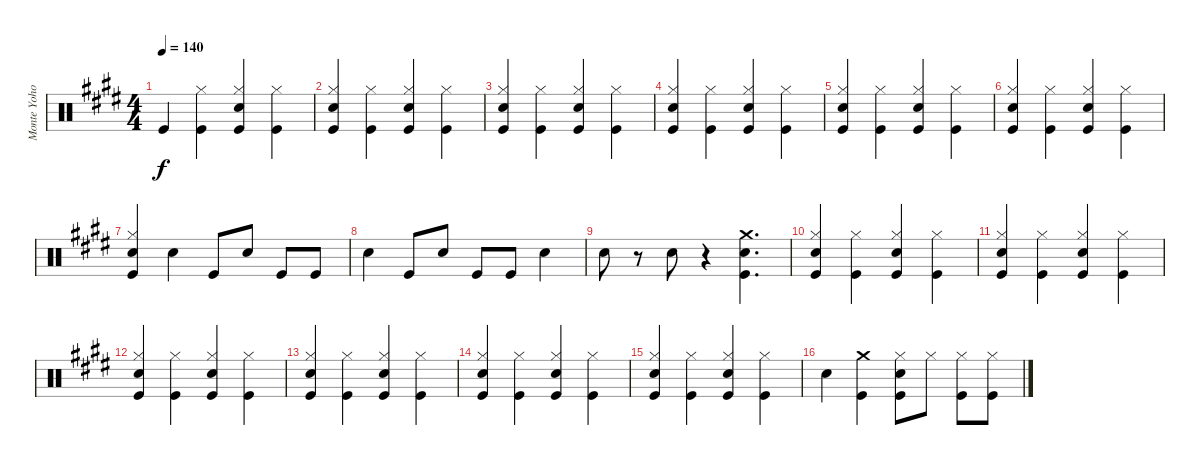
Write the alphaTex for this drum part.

\track ("Monte Yoho Drums" "Monte Yoho") {instrument percussion}
\staff {score}
\articulation defaults
\ts (4 4)
\tempo 140
\clef neutral
\ks e "Kick (hit)".4{dy f}
("Hi-Hat (closed)" "Kick (hit)").4 ("Hi-Hat (closed)" "Snare (hit) 2" "Kick (hit)").4 ("Hi-Hat (closed)" "Kick (hit)").4 |
("Hi-Hat (closed)" "Snare (hit) 2" "Kick (hit)").4 ("Hi-Hat (closed)" "Kick (hit)").4 ("Hi-Hat (closed)" "Snare (hit) 2" "Kick (hit)").4 ("Hi-Hat (closed)" "Kick (hit)").4 |
("Hi-Hat (closed)" "Snare (hit) 2" "Kick (hit)").4 ("Hi-Hat (closed)" "Kick (hit)").4 ("Hi-Hat (closed)" "Snare (hit) 2" "Kick (hit)").4 ("Hi-Hat (closed)" "Kick (hit)").4 |
("Hi-Hat (closed)" "Snare (hit) 2" "Kick (hit)").4 ("Hi-Hat (closed)" "Kick (hit)").4 ("Hi-Hat (closed)" "Snare (hit) 2" "Kick (hit)").4 ("Hi-Hat (closed)" "Kick (hit)").4 |
("Hi-Hat (closed)" "Snare (hit) 2" "Kick (hit)").4 ("Hi-Hat (closed)" "Kick (hit)").4 ("Hi-Hat (closed)" "Snare (hit) 2" "Kick (hit)").4 ("Hi-Hat (closed)" "Kick (hit)").4 |
("Hi-Hat (closed)" "Snare (hit) 2" "Kick (hit)").4 ("Hi-Hat (closed)" "Kick (hit)").4 ("Hi-Hat (closed)" "Snare (hit) 2" "Kick (hit)").4 ("Hi-Hat (closed)" "Kick (hit)").4 |
("Hi-Hat (closed)" "Snare (hit) 2" "Kick (hit)").4 "Snare (hit) 2".4 "Kick (hit)".8 "Snare (hit) 2".8 "Kick (hit)".8 "Kick (hit)".8 |
"Snare (hit) 2".4 "Kick (hit)".8 "Snare (hit) 2".8 "Kick (hit)".8 "Kick (hit)".8 "Snare (hit) 2".4 |
"Snare (hit) 2".8 r.8 "Snare (hit) 2".8 r.4 ("Crash medium (hit)" "Snare (hit) 2" "Kick (hit)").4{d} |
("Hi-Hat (closed)" "Snare (hit) 2" "Kick (hit)").4 ("Hi-Hat (closed)" "Kick (hit)").4 ("Hi-Hat (closed)" "Snare (hit) 2" "Kick (hit)").4 ("Hi-Hat (closed)" "Kick (hit)").4 |
("Hi-Hat (closed)" "Snare (hit) 2" "Kick (hit)").4 ("Hi-Hat (closed)" "Kick (hit)").4 ("Hi-Hat (closed)" "Snare (hit) 2" "Kick (hit)").4 ("Hi-Hat (closed)" "Kick (hit)").4 |
("Hi-Hat (closed)" "Snare (hit) 2" "Kick (hit)").4 ("Hi-Hat (closed)" "Kick (hit)").4 ("Hi-Hat (closed)" "Snare (hit) 2" "Kick (hit)").4 ("Hi-Hat (closed)" "Kick (hit)").4 |
("Hi-Hat (closed)" "Snare (hit) 2" "Kick (hit)").4 ("Hi-Hat (closed)" "Kick (hit)").4 ("Hi-Hat (closed)" "Snare (hit) 2" "Kick (hit)").4 ("Hi-Hat (closed)" "Kick (hit)").4 |
("Hi-Hat (closed)" "Snare (hit) 2" "Kick (hit)").4 ("Hi-Hat (closed)" "Kick (hit)").4 ("Hi-Hat (closed)" "Snare (hit) 2" "Kick (hit)").4 ("Hi-Hat (closed)" "Kick (hit)").4 |
("Hi-Hat (closed)" "Snare (hit) 2" "Kick (hit)").4 ("Hi-Hat (closed)" "Kick (hit)").4 ("Hi-Hat (closed)" "Snare (hit) 2" "Kick (hit)").4 ("Hi-Hat (closed)" "Kick (hit)").4 |
"Snare (hit) 2".4 ("Crash medium (hit)" "Kick (hit)").4 ("Hi-Hat (closed)" "Snare (hit) 2" "Kick (hit)").8 "Hi-Hat (closed)".8 ("Hi-Hat (closed)" "Kick (hit)").8 ("Hi-Hat (closed)" "Kick (hit)").8
